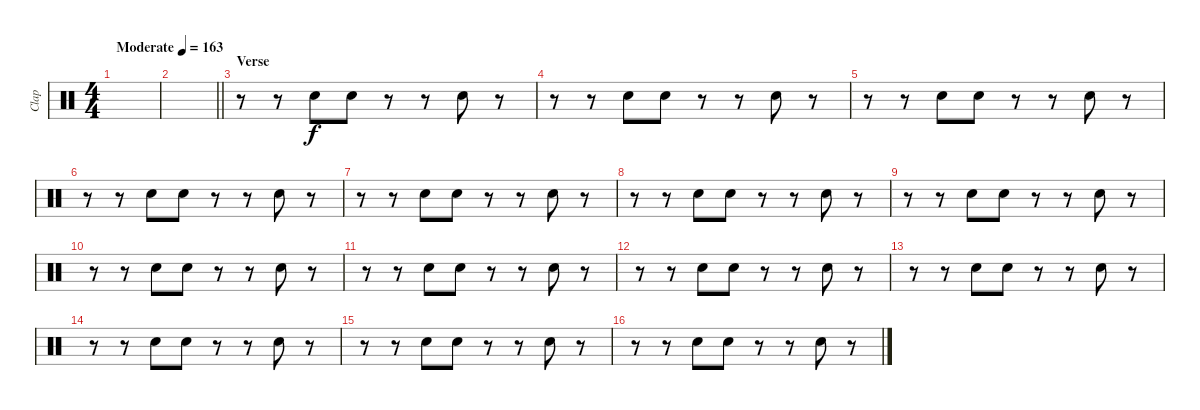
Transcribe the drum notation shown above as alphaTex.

\track ("Clap" "Clap") {instrument percussion}
\staff {score}
\articulation defaults
\ts (4 4)
\tempo (163 "Moderate")
\clef neutral
\ks c
|
\barLineRight lightlight
|
\section ("" "Verse")
r.8 r.8 "Hand Clap (hit)".8 "Hand Clap (hit)".8 r.8 r.8 "Hand Clap (hit)".8 r.8 |
r.8 r.8 "Hand Clap (hit)".8 "Hand Clap (hit)".8 r.8 r.8 "Hand Clap (hit)".8 r.8 |
r.8 r.8 "Hand Clap (hit)".8 "Hand Clap (hit)".8 r.8 r.8 "Hand Clap (hit)".8 r.8 |
r.8 r.8 "Hand Clap (hit)".8 "Hand Clap (hit)".8 r.8 r.8 "Hand Clap (hit)".8 r.8 |
r.8 r.8 "Hand Clap (hit)".8 "Hand Clap (hit)".8 r.8 r.8 "Hand Clap (hit)".8 r.8 |
r.8 r.8 "Hand Clap (hit)".8 "Hand Clap (hit)".8 r.8 r.8 "Hand Clap (hit)".8 r.8 |
r.8 r.8 "Hand Clap (hit)".8 "Hand Clap (hit)".8 r.8 r.8 "Hand Clap (hit)".8 r.8 |
r.8 r.8 "Hand Clap (hit)".8 "Hand Clap (hit)".8 r.8 r.8 "Hand Clap (hit)".8 r.8 |
r.8 r.8 "Hand Clap (hit)".8 "Hand Clap (hit)".8 r.8 r.8 "Hand Clap (hit)".8 r.8 |
r.8 r.8 "Hand Clap (hit)".8 "Hand Clap (hit)".8 r.8 r.8 "Hand Clap (hit)".8 r.8 |
r.8 r.8 "Hand Clap (hit)".8 "Hand Clap (hit)".8 r.8 r.8 "Hand Clap (hit)".8 r.8 |
r.8 r.8 "Hand Clap (hit)".8 "Hand Clap (hit)".8 r.8 r.8 "Hand Clap (hit)".8 r.8 |
r.8 r.8 "Hand Clap (hit)".8 "Hand Clap (hit)".8 r.8 r.8 "Hand Clap (hit)".8 r.8 |
r.8 r.8 "Hand Clap (hit)".8 "Hand Clap (hit)".8 r.8 r.8 "Hand Clap (hit)".8 r.8
